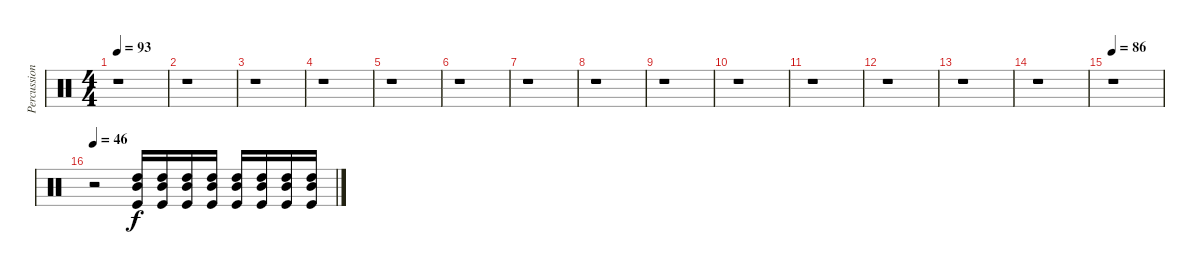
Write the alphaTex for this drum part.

\track ("Percussions" "Percussion") {instrument percussion}
\staff {score}
\articulation defaults
\ts (4 4)
\tempo 93
\clef neutral
\ks c
r.1{dy f} |
r.1 |
r.1 |
r.1 |
r.1 |
r.1 |
r.1 |
r.1 |
r.1 |
r.1 |
r.1 |
r.1 |
r.1 |
r.1 |
\tempo 86
r.1 |
\tempo 46
r.2 ("Mid Tom (hit)" "High Tom (hit)" "Kick (hit)").16 ("Mid Tom (hit)" "High Tom (hit)" "Kick (hit)").16 ("Mid Tom (hit)" "High Tom (hit)" "Kick (hit)").16 ("Mid Tom (hit)" "High Tom (hit)" "Kick (hit)").16 ("Mid Tom (hit)" "High Tom (hit)" "Kick (hit)").16 ("Mid Tom (hit)" "High Tom (hit)" "Kick (hit)").16 ("Mid Tom (hit)" "High Tom (hit)" "Kick (hit)").16 ("Mid Tom (hit)" "High Tom (hit)" "Kick (hit)").16
